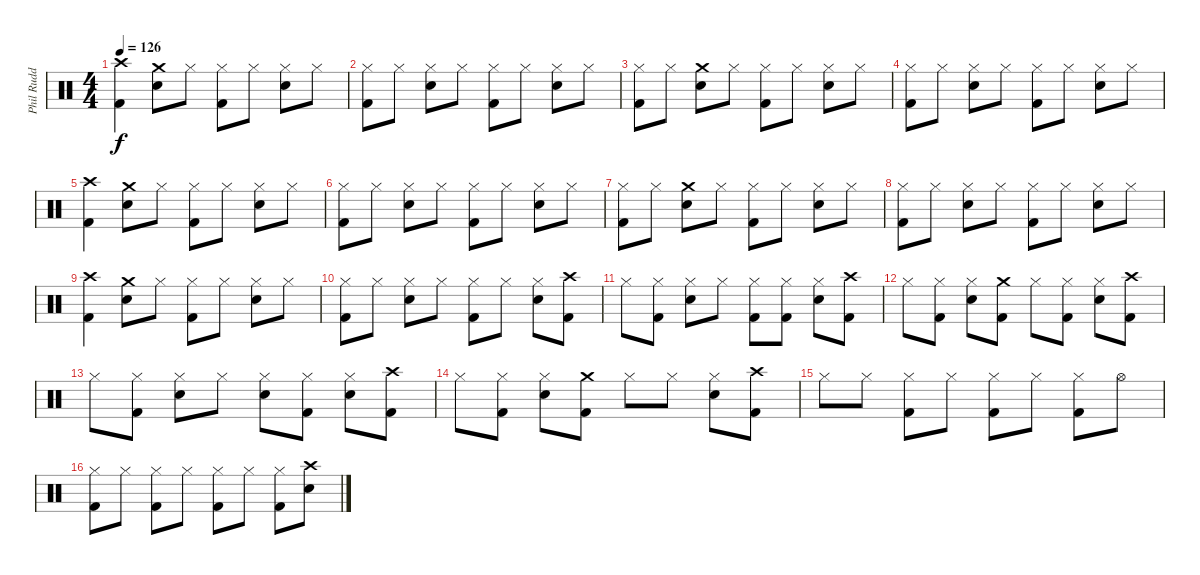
\track ("Phil Rudd (Drums)" "Phil Rudd ") {instrument percussion}
\staff {score}
\articulation defaults
\ts (4 4)
\tempo 126
\clef neutral
\ks c
("Crash high (hit)" "Kick (hit) 2").4{dy f} ("Crash medium (hit)" "Snare (hit) 2").8 "Hi-Hat (closed)".8 ("Hi-Hat (closed)" "Kick (hit) 2").8 "Hi-Hat (closed)".8 ("Hi-Hat (closed)" "Snare (hit) 2").8 "Hi-Hat (closed)".8 |
("Hi-Hat (closed)" "Kick (hit) 2").8 "Hi-Hat (closed)".8 ("Hi-Hat (closed)" "Snare (hit) 2").8 "Hi-Hat (closed)".8 ("Hi-Hat (closed)" "Kick (hit) 2").8 "Hi-Hat (closed)".8 ("Hi-Hat (closed)" "Snare (hit) 2").8 "Hi-Hat (closed)".8 |
("Hi-Hat (closed)" "Kick (hit) 2").8 "Hi-Hat (closed)".8 ("Crash medium (hit)" "Snare (hit) 2").8 "Hi-Hat (closed)".8 ("Hi-Hat (closed)" "Kick (hit) 2").8 "Hi-Hat (closed)".8 ("Hi-Hat (closed)" "Snare (hit) 2").8 "Hi-Hat (closed)".8 |
("Hi-Hat (closed)" "Kick (hit) 2").8 "Hi-Hat (closed)".8 ("Hi-Hat (closed)" "Snare (hit) 2").8 "Hi-Hat (closed)".8 ("Hi-Hat (closed)" "Kick (hit) 2").8 "Hi-Hat (closed)".8 ("Hi-Hat (closed)" "Snare (hit) 2").8 "Hi-Hat (closed)".8 |
("Crash high (hit)" "Kick (hit) 2").4 ("Crash medium (hit)" "Snare (hit) 2").8 "Hi-Hat (closed)".8 ("Hi-Hat (closed)" "Kick (hit) 2").8 "Hi-Hat (closed)".8 ("Hi-Hat (closed)" "Snare (hit) 2").8 "Hi-Hat (closed)".8 |
("Hi-Hat (closed)" "Kick (hit) 2").8 "Hi-Hat (closed)".8 ("Hi-Hat (closed)" "Snare (hit) 2").8 "Hi-Hat (closed)".8 ("Hi-Hat (closed)" "Kick (hit) 2").8 "Hi-Hat (closed)".8 ("Hi-Hat (closed)" "Snare (hit) 2").8 "Hi-Hat (closed)".8 |
("Hi-Hat (closed)" "Kick (hit) 2").8 "Hi-Hat (closed)".8 ("Crash medium (hit)" "Snare (hit) 2").8 "Hi-Hat (closed)".8 ("Hi-Hat (closed)" "Kick (hit) 2").8 "Hi-Hat (closed)".8 ("Hi-Hat (closed)" "Snare (hit) 2").8 "Hi-Hat (closed)".8 |
("Hi-Hat (closed)" "Kick (hit) 2").8 "Hi-Hat (closed)".8 ("Hi-Hat (closed)" "Snare (hit) 2").8 "Hi-Hat (closed)".8 ("Hi-Hat (closed)" "Kick (hit) 2").8 "Hi-Hat (closed)".8 ("Hi-Hat (closed)" "Snare (hit) 2").8 "Hi-Hat (closed)".8 |
("Crash high (hit)" "Kick (hit) 2").4 ("Crash medium (hit)" "Snare (hit) 2").8 "Hi-Hat (closed)".8 ("Hi-Hat (closed)" "Kick (hit) 2").8 "Hi-Hat (closed)".8 ("Hi-Hat (closed)" "Snare (hit) 2").8 "Hi-Hat (closed)".8 |
("Hi-Hat (closed)" "Kick (hit) 2").8 "Hi-Hat (closed)".8 ("Hi-Hat (closed)" "Snare (hit) 2").8 "Hi-Hat (closed)".8 ("Hi-Hat (closed)" "Kick (hit) 2").8 "Hi-Hat (closed)".8 ("Hi-Hat (closed)" "Snare (hit) 2").8 ("Crash high (hit)" "Kick (hit) 2").8 |
"Hi-Hat (closed)".8 ("Hi-Hat (closed)" "Kick (hit) 2").8 ("Hi-Hat (closed)" "Snare (hit) 2").8 "Hi-Hat (closed)".8 ("Hi-Hat (closed)" "Kick (hit) 2").8 ("Hi-Hat (closed)" "Kick (hit) 2").8 ("Hi-Hat (closed)" "Snare (hit) 2").8 ("Crash high (hit)" "Kick (hit) 2").8 |
"Hi-Hat (closed)".8 ("Hi-Hat (closed)" "Kick (hit) 2").8 ("Hi-Hat (closed)" "Snare (hit) 2").8 ("Crash medium (hit)" "Kick (hit) 2").8 "Hi-Hat (closed)".8 ("Hi-Hat (closed)" "Kick (hit) 2").8 ("Hi-Hat (closed)" "Snare (hit) 2").8 ("Crash high (hit)" "Kick (hit) 2").8 |
"Hi-Hat (closed)".8 ("Hi-Hat (closed)" "Kick (hit) 2").8 ("Hi-Hat (closed)" "Snare (hit) 2").8 "Hi-Hat (closed)".8 ("Hi-Hat (closed)" "Snare (hit) 2").8 ("Hi-Hat (closed)" "Kick (hit) 2").8 ("Hi-Hat (closed)" "Snare (hit) 2").8 ("Crash high (hit)" "Kick (hit) 2").8 |
"Hi-Hat (closed)".8 ("Hi-Hat (closed)" "Kick (hit) 2").8 ("Hi-Hat (closed)" "Snare (hit) 2").8 ("Crash medium (hit)" "Kick (hit) 2").8 "Hi-Hat (closed)".8 "Hi-Hat (closed)".8 ("Hi-Hat (closed)" "Snare (hit) 2").8 ("Crash high (hit)" "Kick (hit) 2").8 |
"Hi-Hat (closed)".8 "Hi-Hat (closed)".8 ("Hi-Hat (closed)" "Kick (hit) 2").8 "Hi-Hat (closed)".8 ("Hi-Hat (closed)" "Kick (hit) 2").8 "Hi-Hat (closed)".8 ("Hi-Hat (closed)" "Kick (hit) 2").8 "Hi-Hat (open)".8 |
("Hi-Hat (closed)" "Kick (hit) 2").8 "Hi-Hat (closed)".8 ("Hi-Hat (closed)" "Kick (hit) 2").8 "Hi-Hat (closed)".8 ("Hi-Hat (closed)" "Kick (hit) 2").8 "Hi-Hat (closed)".8 ("Hi-Hat (closed)" "Kick (hit) 2").8 ("Crash high (hit)" "Snare (hit) 2").8
